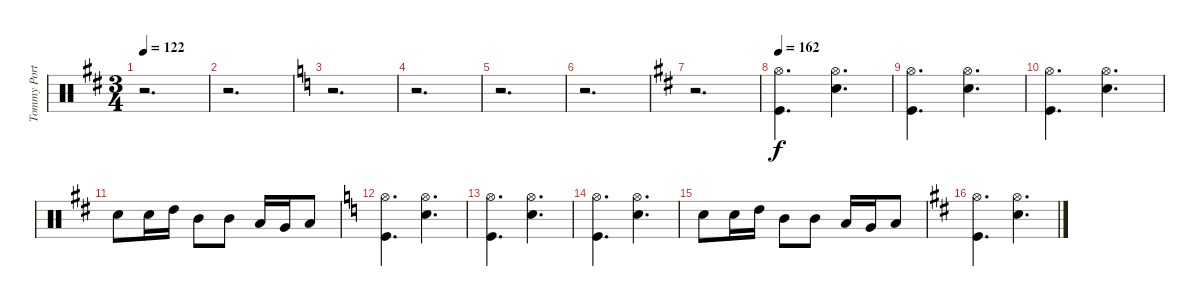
\track ("Tommy Portimo (Drums)" "Tommy Port") {instrument percussion}
\staff {score}
\articulation defaults
\ts (3 4)
\tempo 122
\clef neutral
\ks d
r.2{d dy f} |
r.2{d} |
\ks c
r.2{d} |
r.2{d} |
r.2{d} |
r.2{d} |
\ks d
r.2{d} |
\tempo 162
("Kick (hit)" "Hi-Hat (open)").4{d} ("Hi-Hat (open)" "Electric Snare (hit)").4{d} |
("Kick (hit)" "Hi-Hat (open)").4{d} ("Hi-Hat (open)" "Electric Snare (hit)").4{d} |
("Kick (hit)" "Hi-Hat (open)").4{d} ("Hi-Hat (open)" "Electric Snare (hit)").4{d} |
"Electric Snare (hit)".8 "Electric Snare (hit)".16 "High Tom (hit)".16 "Mid Tom (hit)".8 "Mid Tom (hit)".8 "Low Tom (hit)".16 "Very Low Tom (hit)".16 "Low Floor Tom (hit)".8 |
\ks c
("Kick (hit)" "Hi-Hat (open)").4{d} ("Hi-Hat (open)" "Electric Snare (hit)").4{d} |
("Kick (hit)" "Hi-Hat (open)").4{d} ("Hi-Hat (open)" "Electric Snare (hit)").4{d} |
("Kick (hit)" "Hi-Hat (open)").4{d} ("Hi-Hat (open)" "Electric Snare (hit)").4{d} |
"Electric Snare (hit)".8 "Electric Snare (hit)".16 "High Tom (hit)".16 "Mid Tom (hit)".8 "Mid Tom (hit)".8 "Low Tom (hit)".16 "Very Low Tom (hit)".16 "Low Floor Tom (hit)".8 |
\ks d
("Kick (hit)" "Hi-Hat (open)").4{d} ("Hi-Hat (open)" "Electric Snare (hit)").4{d}
